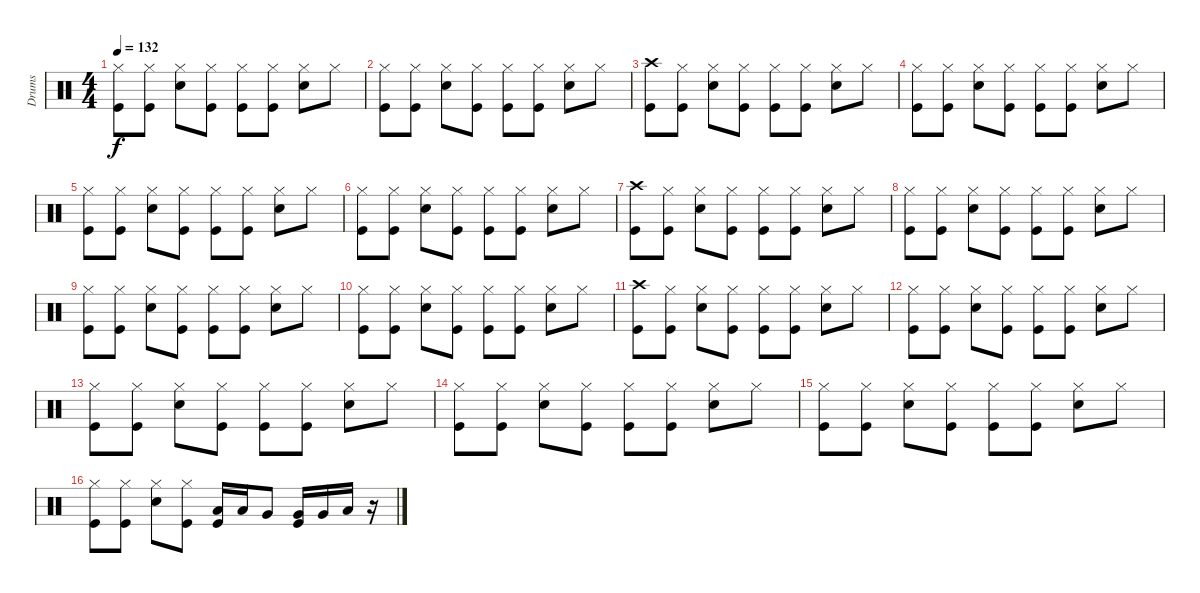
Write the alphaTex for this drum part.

\track ("Drums" "Drums") {instrument percussion}
\staff {score}
\articulation defaults
\ts (4 4)
\tempo 132
\clef neutral
\ks c
("Hi-Hat (closed)" "Kick (hit)").8{dy f} ("Hi-Hat (closed)" "Kick (hit)").8 ("Hi-Hat (closed)" "Snare (hit) 2").8 ("Hi-Hat (closed)" "Kick (hit)").8 ("Hi-Hat (closed)" "Kick (hit)").8 ("Hi-Hat (closed)" "Kick (hit)").8 ("Hi-Hat (closed)" "Snare (hit) 2").8 "Hi-Hat (closed)".8 |
("Hi-Hat (closed)" "Kick (hit)").8 ("Kick (hit)" "Hi-Hat (closed)").8 ("Hi-Hat (closed)" "Snare (hit) 2").8 ("Hi-Hat (closed)" "Kick (hit)").8 ("Hi-Hat (closed)" "Kick (hit)").8 ("Hi-Hat (closed)" "Kick (hit)").8 ("Snare (hit) 2" "Hi-Hat (closed)").8 "Hi-Hat (closed)".8 |
("Crash high (hit)" "Kick (hit)").8 ("Hi-Hat (closed)" "Kick (hit)").8 ("Hi-Hat (closed)" "Snare (hit) 2").8 ("Hi-Hat (closed)" "Kick (hit)").8 ("Hi-Hat (closed)" "Kick (hit)").8 ("Kick (hit)" "Hi-Hat (closed)").8 ("Hi-Hat (closed)" "Snare (hit) 2").8 "Hi-Hat (closed)".8 |
("Kick (hit)" "Hi-Hat (closed)").8 ("Kick (hit)" "Hi-Hat (closed)").8 ("Hi-Hat (closed)" "Snare (hit) 2").8 ("Hi-Hat (closed)" "Kick (hit)").8 ("Kick (hit)" "Hi-Hat (closed)").8 ("Hi-Hat (closed)" "Kick (hit)").8 ("Snare (hit) 2" "Hi-Hat (closed)").8 "Hi-Hat (closed)".8 |
("Hi-Hat (closed)" "Kick (hit)").8 ("Hi-Hat (closed)" "Kick (hit)").8 ("Hi-Hat (closed)" "Snare (hit) 2").8 ("Hi-Hat (closed)" "Kick (hit)").8 ("Hi-Hat (closed)" "Kick (hit)").8 ("Kick (hit)" "Hi-Hat (closed)").8 ("Hi-Hat (closed)" "Snare (hit) 2").8 "Hi-Hat (closed)".8 |
("Kick (hit)" "Hi-Hat (closed)").8 ("Kick (hit)" "Hi-Hat (closed)").8 ("Hi-Hat (closed)" "Snare (hit) 2").8 ("Hi-Hat (closed)" "Kick (hit)").8 ("Kick (hit)" "Hi-Hat (closed)").8 ("Hi-Hat (closed)" "Kick (hit)").8 ("Snare (hit) 2" "Hi-Hat (closed)").8 "Hi-Hat (closed)".8 |
("Crash high (hit)" "Kick (hit)").8 ("Hi-Hat (closed)" "Kick (hit)").8 ("Hi-Hat (closed)" "Snare (hit) 2").8 ("Hi-Hat (closed)" "Kick (hit)").8 ("Hi-Hat (closed)" "Kick (hit)").8 ("Kick (hit)" "Hi-Hat (closed)").8 ("Hi-Hat (closed)" "Snare (hit) 2").8 "Hi-Hat (closed)".8 |
("Kick (hit)" "Hi-Hat (closed)").8 ("Kick (hit)" "Hi-Hat (closed)").8 ("Hi-Hat (closed)" "Snare (hit) 2").8 ("Hi-Hat (closed)" "Kick (hit)").8 ("Kick (hit)" "Hi-Hat (closed)").8 ("Hi-Hat (closed)" "Kick (hit)").8 ("Snare (hit) 2" "Hi-Hat (closed)").8 "Hi-Hat (closed)".8 |
("Hi-Hat (closed)" "Kick (hit)").8 ("Hi-Hat (closed)" "Kick (hit)").8 ("Hi-Hat (closed)" "Snare (hit) 2").8 ("Hi-Hat (closed)" "Kick (hit)").8 ("Hi-Hat (closed)" "Kick (hit)").8 ("Kick (hit)" "Hi-Hat (closed)").8 ("Hi-Hat (closed)" "Snare (hit) 2").8 "Hi-Hat (closed)".8 |
("Kick (hit)" "Hi-Hat (closed)").8 ("Kick (hit)" "Hi-Hat (closed)").8 ("Hi-Hat (closed)" "Snare (hit) 2").8 ("Hi-Hat (closed)" "Kick (hit)").8 ("Kick (hit)" "Hi-Hat (closed)").8 ("Hi-Hat (closed)" "Kick (hit)").8 ("Snare (hit) 2" "Hi-Hat (closed)").8 "Hi-Hat (closed)".8 |
("Crash high (hit)" "Kick (hit)").8 ("Hi-Hat (closed)" "Kick (hit)").8 ("Hi-Hat (closed)" "Snare (hit) 2").8 ("Hi-Hat (closed)" "Kick (hit)").8 ("Hi-Hat (closed)" "Kick (hit)").8 ("Kick (hit)" "Hi-Hat (closed)").8 ("Hi-Hat (closed)" "Snare (hit) 2").8 "Hi-Hat (closed)".8 |
("Kick (hit)" "Hi-Hat (closed)").8 ("Kick (hit)" "Hi-Hat (closed)").8 ("Hi-Hat (closed)" "Snare (hit) 2").8 ("Hi-Hat (closed)" "Kick (hit)").8 ("Kick (hit)" "Hi-Hat (closed)").8 ("Hi-Hat (closed)" "Kick (hit)").8 ("Snare (hit) 2" "Hi-Hat (closed)").8 "Hi-Hat (closed)".8 |
("Hi-Hat (closed)" "Kick (hit)").8 ("Hi-Hat (closed)" "Kick (hit)").8 ("Hi-Hat (closed)" "Snare (hit) 2").8 ("Hi-Hat (closed)" "Kick (hit)").8 ("Hi-Hat (closed)" "Kick (hit)").8 ("Kick (hit)" "Hi-Hat (closed)").8 ("Hi-Hat (closed)" "Snare (hit) 2").8 "Hi-Hat (closed)".8 |
("Kick (hit)" "Hi-Hat (closed)").8 ("Kick (hit)" "Hi-Hat (closed)").8 ("Hi-Hat (closed)" "Snare (hit) 2").8 ("Hi-Hat (closed)" "Kick (hit)").8 ("Kick (hit)" "Hi-Hat (closed)").8 ("Hi-Hat (closed)" "Kick (hit)").8 ("Snare (hit) 2" "Hi-Hat (closed)").8 "Hi-Hat (closed)".8 |
("Hi-Hat (closed)" "Kick (hit)").8 ("Hi-Hat (closed)" "Kick (hit)").8 ("Hi-Hat (closed)" "Snare (hit) 2").8 ("Hi-Hat (closed)" "Kick (hit)").8 ("Hi-Hat (closed)" "Kick (hit)").8 ("Hi-Hat (closed)" "Kick (hit)").8 ("Hi-Hat (closed)" "Snare (hit) 2").8 "Hi-Hat (closed)".8 |
("Kick (hit)" "Hi-Hat (closed)").8 ("Kick (hit)" "Hi-Hat (closed)").8 ("Hi-Hat (closed)" "Snare (hit) 2").8 ("Hi-Hat (closed)" "Kick (hit)").8 ("Kick (hit)" "Low Tom (hit)").16 "Low Tom (hit)".16 "Very Low Tom (hit)".8 ("Kick (hit)" "Very Low Tom (hit)").16 "Very Low Tom (hit)".16 "Low Floor Tom (hit)".16 r.16
